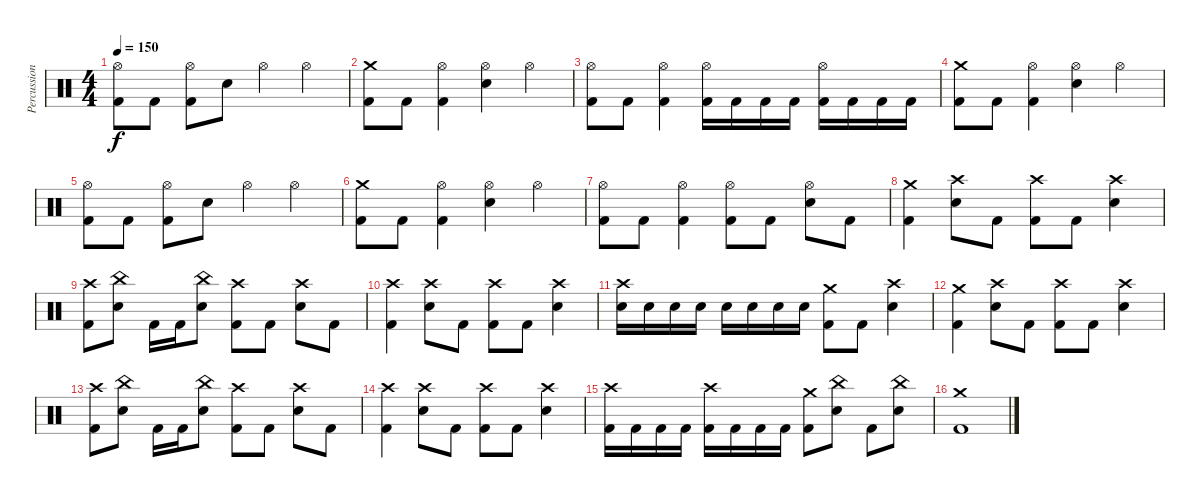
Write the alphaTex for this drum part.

\track ("Percussion" "Percussion") {instrument percussion}
\staff {score}
\articulation defaults
\ts (4 4)
\tempo 150
\clef neutral
\ks c
("Hi-Hat (open)" "Kick (hit) 2").8{dy f} "Kick (hit) 2".8 ("Hi-Hat (open)" "Kick (hit) 2").8 "Electric Snare (hit)".8 "Hi-Hat (open)".4 "Hi-Hat (open)".4 |
("Crash medium (hit)" "Kick (hit) 2").8 "Kick (hit) 2".8 ("Hi-Hat (open)" "Kick (hit) 2").4 ("Hi-Hat (open)" "Electric Snare (hit)").4 "Hi-Hat (open)".4 |
("Hi-Hat (open)" "Kick (hit) 2").8 "Kick (hit) 2".8 ("Hi-Hat (open)" "Kick (hit) 2").4 ("Hi-Hat (open)" "Kick (hit) 2").16 "Kick (hit) 2".16 "Kick (hit) 2".16 "Kick (hit) 2".16 ("Hi-Hat (open)" "Kick (hit) 2").16 "Kick (hit) 2".16 "Kick (hit) 2".16 "Kick (hit) 2".16 |
("Crash medium (hit)" "Kick (hit) 2").8 "Kick (hit) 2".8 ("Hi-Hat (open)" "Kick (hit) 2").4 ("Hi-Hat (open)" "Electric Snare (hit)").4 "Hi-Hat (open)".4 |
("Hi-Hat (open)" "Kick (hit) 2").8 "Kick (hit) 2".8 ("Hi-Hat (open)" "Kick (hit) 2").8 "Electric Snare (hit)".8 "Hi-Hat (open)".4 "Hi-Hat (open)".4 |
("Crash medium (hit)" "Kick (hit) 2").8 "Kick (hit) 2".8 ("Hi-Hat (open)" "Kick (hit) 2").4 ("Hi-Hat (open)" "Electric Snare (hit)").4 "Hi-Hat (open)".4 |
("Hi-Hat (open)" "Kick (hit) 2").8 "Kick (hit) 2".8 ("Hi-Hat (open)" "Kick (hit) 2").4 ("Hi-Hat (open)" "Kick (hit) 2").8 "Kick (hit) 2".8 ("Hi-Hat (open)" "Electric Snare (hit)").8 "Kick (hit) 2".8 |
("Crash medium (hit)" "Kick (hit) 2").4 ("Crash high (hit)" "Electric Snare (hit)").8 "Kick (hit) 2".8 ("Crash high (hit)" "Kick (hit) 2").8 "Kick (hit) 2".8 ("Crash high (hit)" "Electric Snare (hit)").4 |
("Crash high (hit)" "Kick (hit) 2").8 ("China (hit)" "Electric Snare (hit)").8 "Kick (hit) 2".16 "Kick (hit) 2".16 ("China (hit)" "Electric Snare (hit)").8 ("Crash high (hit)" "Kick (hit) 2").8 "Kick (hit) 2".8 ("Crash high (hit)" "Electric Snare (hit)").8 "Kick (hit) 2".8 |
("Crash high (hit)" "Kick (hit) 2").4 ("Crash high (hit)" "Electric Snare (hit)").8 "Kick (hit) 2".8 ("Crash high (hit)" "Kick (hit) 2").8 "Kick (hit) 2".8 ("Crash high (hit)" "Electric Snare (hit)").4 |
("Crash high (hit)" "Electric Snare (hit)").16 "Electric Snare (hit)".16 "Electric Snare (hit)".16 "Electric Snare (hit)".16 "Electric Snare (hit)".16 "Electric Snare (hit)".16 "Electric Snare (hit)".16 "Electric Snare (hit)".16 ("Crash medium (hit)" "Kick (hit) 2").8 "Kick (hit) 2".8 ("Crash high (hit)" "Electric Snare (hit)").4 |
("Crash medium (hit)" "Kick (hit) 2").4 ("Crash high (hit)" "Electric Snare (hit)").8 "Kick (hit) 2".8 ("Crash high (hit)" "Kick (hit) 2").8 "Kick (hit) 2".8 ("Crash high (hit)" "Electric Snare (hit)").4 |
("Crash high (hit)" "Kick (hit) 2").8 ("China (hit)" "Electric Snare (hit)").8 "Kick (hit) 2".16 "Kick (hit) 2".16 ("China (hit)" "Electric Snare (hit)").8 ("Crash high (hit)" "Kick (hit) 2").8 "Kick (hit) 2".8 ("Crash high (hit)" "Electric Snare (hit)").8 "Kick (hit) 2".8 |
("Crash high (hit)" "Kick (hit) 2").4 ("Crash high (hit)" "Electric Snare (hit)").8 "Kick (hit) 2".8 ("Crash high (hit)" "Kick (hit) 2").8 "Kick (hit) 2".8 ("Crash high (hit)" "Electric Snare (hit)").4 |
("Crash high (hit)" "Kick (hit) 2").16 "Kick (hit) 2".16 "Kick (hit) 2".16 "Kick (hit) 2".16 ("Crash high (hit)" "Kick (hit) 2").16 "Kick (hit) 2".16 "Kick (hit) 2".16 "Kick (hit) 2".16 ("Crash medium (hit)" "Kick (hit) 2").8 ("China (hit)" "Electric Snare (hit)").8 "Kick (hit) 2".8 ("China (hit)" "Electric Snare (hit)").8 |
("Crash medium (hit)" "Kick (hit) 2").1
